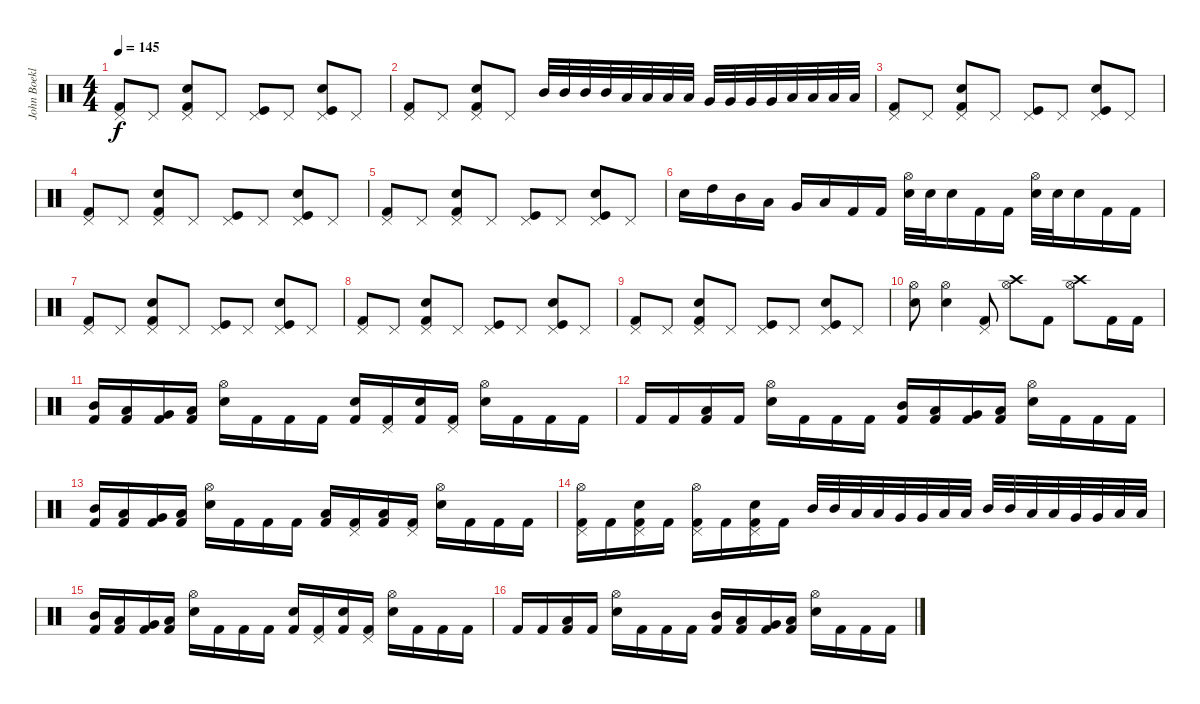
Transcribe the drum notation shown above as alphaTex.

\track ("John Boeklin" "John Boekl") {instrument percussion}
\staff {score}
\articulation defaults
\ts (4 4)
\tempo 145
\clef neutral
\ks c
("Pedal Hi-Hat (hit)" "Kick (hit) 2").8{dy f} "Pedal Hi-Hat (hit)".8 ("Pedal Hi-Hat (hit)" "Electric Snare (hit)" "Kick (hit) 2").8 "Pedal Hi-Hat (hit)".8 ("Pedal Hi-Hat (hit)" "Kick (hit)").8 "Pedal Hi-Hat (hit)".8 ("Pedal Hi-Hat (hit)" "Electric Snare (hit)" "Kick (hit)").8 "Pedal Hi-Hat (hit)".8 |
("Pedal Hi-Hat (hit)" "Kick (hit) 2").8 "Pedal Hi-Hat (hit)".8 ("Pedal Hi-Hat (hit)" "Electric Snare (hit)" "Kick (hit) 2").8 "Pedal Hi-Hat (hit)".8 "Mid Tom (hit)".32 "Mid Tom (hit)".32 "Mid Tom (hit)".32 "Mid Tom (hit)".32 "Low Tom (hit)".32 "Low Tom (hit)".32 "Low Tom (hit)".32 "Low Tom (hit)".32 "Very Low Tom (hit)".32 "Very Low Tom (hit)".32 "Very Low Tom (hit)".32 "Very Low Tom (hit)".32 "Low Floor Tom (hit)".32 "Low Floor Tom (hit)".32 "Low Floor Tom (hit)".32 "Low Floor Tom (hit)".32 |
("Pedal Hi-Hat (hit)" "Kick (hit) 2").8 "Pedal Hi-Hat (hit)".8 ("Pedal Hi-Hat (hit)" "Electric Snare (hit)" "Kick (hit) 2").8 "Pedal Hi-Hat (hit)".8 ("Pedal Hi-Hat (hit)" "Kick (hit)").8 "Pedal Hi-Hat (hit)".8 ("Pedal Hi-Hat (hit)" "Electric Snare (hit)" "Kick (hit)").8 "Pedal Hi-Hat (hit)".8 |
("Pedal Hi-Hat (hit)" "Kick (hit) 2").8 "Pedal Hi-Hat (hit)".8 ("Pedal Hi-Hat (hit)" "Electric Snare (hit)" "Kick (hit) 2").8 "Pedal Hi-Hat (hit)".8 ("Pedal Hi-Hat (hit)" "Kick (hit)").8 "Pedal Hi-Hat (hit)".8 ("Pedal Hi-Hat (hit)" "Electric Snare (hit)" "Kick (hit)").8 "Pedal Hi-Hat (hit)".8 |
("Pedal Hi-Hat (hit)" "Kick (hit) 2").8 "Pedal Hi-Hat (hit)".8 ("Pedal Hi-Hat (hit)" "Electric Snare (hit)" "Kick (hit) 2").8 "Pedal Hi-Hat (hit)".8 ("Pedal Hi-Hat (hit)" "Kick (hit)").8 "Pedal Hi-Hat (hit)".8 ("Pedal Hi-Hat (hit)" "Electric Snare (hit)" "Kick (hit)").8 "Pedal Hi-Hat (hit)".8 |
"Electric Snare (hit)".16 "High Tom (hit)".16 "Mid Tom (hit)".16 "Low Tom (hit)".16 "Very Low Tom (hit)".16 "Low Floor Tom (hit)".16 "Kick (hit) 2".16 "Kick (hit) 2".16 ("Hi-Hat (open)" "Electric Snare (hit)").32 "Electric Snare (hit)".32 "Electric Snare (hit)".16 "Kick (hit) 2".16 "Kick (hit) 2".16 ("Hi-Hat (open)" "Electric Snare (hit)").32 "Electric Snare (hit)".32 "Electric Snare (hit)".16 "Kick (hit) 2".16 "Kick (hit) 2".16 |
("Pedal Hi-Hat (hit)" "Kick (hit) 2").8 "Pedal Hi-Hat (hit)".8 ("Pedal Hi-Hat (hit)" "Electric Snare (hit)" "Kick (hit) 2").8 "Pedal Hi-Hat (hit)".8 ("Pedal Hi-Hat (hit)" "Kick (hit)").8 "Pedal Hi-Hat (hit)".8 ("Pedal Hi-Hat (hit)" "Electric Snare (hit)" "Kick (hit)").8 "Pedal Hi-Hat (hit)".8 |
("Pedal Hi-Hat (hit)" "Kick (hit) 2").8 "Pedal Hi-Hat (hit)".8 ("Pedal Hi-Hat (hit)" "Electric Snare (hit)" "Kick (hit) 2").8 "Pedal Hi-Hat (hit)".8 ("Pedal Hi-Hat (hit)" "Kick (hit)").8 "Pedal Hi-Hat (hit)".8 ("Pedal Hi-Hat (hit)" "Electric Snare (hit)" "Kick (hit)").8 "Pedal Hi-Hat (hit)".8 |
("Pedal Hi-Hat (hit)" "Kick (hit) 2").8 "Pedal Hi-Hat (hit)".8 ("Pedal Hi-Hat (hit)" "Electric Snare (hit)" "Kick (hit) 2").8 "Pedal Hi-Hat (hit)".8 ("Pedal Hi-Hat (hit)" "Kick (hit)").8 "Pedal Hi-Hat (hit)".8 ("Pedal Hi-Hat (hit)" "Electric Snare (hit)" "Kick (hit)").8 "Pedal Hi-Hat (hit)".8 |
("Hi-Hat (open)" "Electric Snare (hit)").8 ("Hi-Hat (open)" "Electric Snare (hit)").4 ("Pedal Hi-Hat (hit)" "Kick (hit) 2").8 ("Hi-Hat (open)" "Crash high (hit)").8 "Kick (hit) 2".8 ("Hi-Hat (open)" "Crash high (hit)").8 "Kick (hit) 2".16 "Kick (hit) 2".16 |
("Mid Tom (hit)" "Kick (hit) 2").16 ("Low Tom (hit)" "Kick (hit) 2").16 ("Very Low Tom (hit)" "Kick (hit) 2").16 ("Low Floor Tom (hit)" "Kick (hit) 2").16 ("Electric Snare (hit)" "Hi-Hat (open)").16 "Kick (hit) 2".16 "Kick (hit) 2".16 "Kick (hit) 2".16 ("Electric Snare (hit)" "Kick (hit) 2").16 ("Pedal Hi-Hat (hit)" "Kick (hit) 2").16 ("Electric Snare (hit)" "Kick (hit) 2").16 ("Pedal Hi-Hat (hit)" "Kick (hit) 2").16 ("Electric Snare (hit)" "Hi-Hat (open)").16 "Kick (hit) 2".16 "Kick (hit) 2".16 "Kick (hit) 2".16 |
"Kick (hit) 2".16 "Kick (hit) 2".16 ("Low Floor Tom (hit)" "Kick (hit) 2").16 "Kick (hit) 2".16 ("Electric Snare (hit)" "Hi-Hat (open)").16 "Kick (hit) 2".16 "Kick (hit) 2".16 "Kick (hit) 2".16 ("Mid Tom (hit)" "Kick (hit) 2").16 ("Low Tom (hit)" "Kick (hit) 2").16 ("Very Low Tom (hit)" "Kick (hit) 2").16 ("Low Floor Tom (hit)" "Kick (hit) 2").16 ("Electric Snare (hit)" "Hi-Hat (open)").16 "Kick (hit) 2".16 "Kick (hit) 2".16 "Kick (hit) 2".16 |
("Mid Tom (hit)" "Kick (hit) 2").16 ("Low Tom (hit)" "Kick (hit) 2").16 ("Very Low Tom (hit)" "Kick (hit) 2").16 ("Low Floor Tom (hit)" "Kick (hit) 2").16 ("Electric Snare (hit)" "Hi-Hat (open)").16 "Kick (hit) 2".16 "Kick (hit) 2".16 "Kick (hit) 2".16 ("Low Floor Tom (hit)" "Kick (hit) 2").16 ("Pedal Hi-Hat (hit)" "Kick (hit) 2").16 ("Low Floor Tom (hit)" "Kick (hit) 2").16 ("Pedal Hi-Hat (hit)" "Kick (hit) 2").16 ("Electric Snare (hit)" "Hi-Hat (open)").16 "Kick (hit) 2".16 "Kick (hit) 2".16 "Kick (hit) 2".16 |
("Hi-Hat (open)" "Pedal Hi-Hat (hit)" "Kick (hit) 2").16 "Kick (hit) 2".16 ("Pedal Hi-Hat (hit)" "Electric Snare (hit)" "Kick (hit) 2").16 "Kick (hit) 2".16 ("Hi-Hat (open)" "Pedal Hi-Hat (hit)" "Kick (hit) 2").16 "Kick (hit) 2".16 ("Pedal Hi-Hat (hit)" "Electric Snare (hit)" "Kick (hit) 2").16 "Kick (hit) 2".16 "Mid Tom (hit)".32 "Mid Tom (hit)".32 "Low Tom (hit)".32 "Low Tom (hit)".32 "Very Low Tom (hit)".32 "Very Low Tom (hit)".32 "Low Floor Tom (hit)".32 "Low Floor Tom (hit)".32 "Mid Tom (hit)".32 "Mid Tom (hit)".32 "Low Tom (hit)".32 "Low Tom (hit)".32 "Very Low Tom (hit)".32 "Very Low Tom (hit)".32 "Low Floor Tom (hit)".32 "Low Floor Tom (hit)".32 |
("Mid Tom (hit)" "Kick (hit) 2").16 ("Low Tom (hit)" "Kick (hit) 2").16 ("Very Low Tom (hit)" "Kick (hit) 2").16 ("Low Floor Tom (hit)" "Kick (hit) 2").16 ("Electric Snare (hit)" "Hi-Hat (open)").16 "Kick (hit) 2".16 "Kick (hit) 2".16 "Kick (hit) 2".16 ("Electric Snare (hit)" "Kick (hit) 2").16 ("Pedal Hi-Hat (hit)" "Kick (hit) 2").16 ("Electric Snare (hit)" "Kick (hit) 2").16 ("Pedal Hi-Hat (hit)" "Kick (hit) 2").16 ("Electric Snare (hit)" "Hi-Hat (open)").16 "Kick (hit) 2".16 "Kick (hit) 2".16 "Kick (hit) 2".16 |
"Kick (hit) 2".16 "Kick (hit) 2".16 ("Low Floor Tom (hit)" "Kick (hit) 2").16 "Kick (hit) 2".16 ("Electric Snare (hit)" "Hi-Hat (open)").16 "Kick (hit) 2".16 "Kick (hit) 2".16 "Kick (hit) 2".16 ("Mid Tom (hit)" "Kick (hit) 2").16 ("Low Tom (hit)" "Kick (hit) 2").16 ("Very Low Tom (hit)" "Kick (hit) 2").16 ("Low Floor Tom (hit)" "Kick (hit) 2").16 ("Electric Snare (hit)" "Hi-Hat (open)").16 "Kick (hit) 2".16 "Kick (hit) 2".16 "Kick (hit) 2".16
